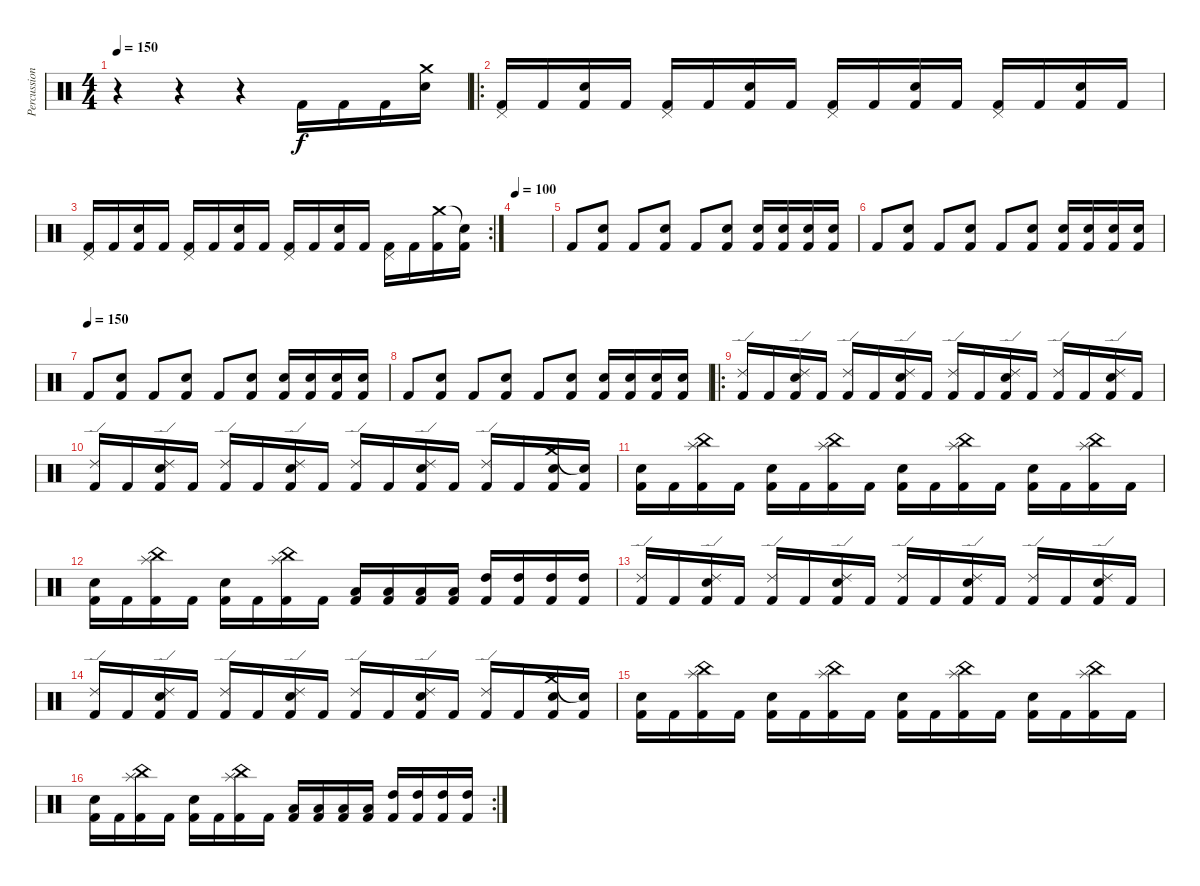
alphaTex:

\track ("Percussion" "Percussion") {instrument percussion}
\staff {score}
\articulation defaults
\ts (4 4)
\tempo 150
\clef neutral
\ks c
r.4{dy f} r.4 r.4 "Kick (hit) 2".16 "Kick (hit) 2".16 "Kick (hit) 2".16 ("Crash medium (hit)" "Electric Snare (hit)").16 |
\ro
("Pedal Hi-Hat (hit)" "Kick (hit) 2").16 "Kick (hit) 2".16 ("Electric Snare (hit)" "Kick (hit) 2").16 "Kick (hit) 2".16 ("Pedal Hi-Hat (hit)" "Kick (hit) 2").16 "Kick (hit) 2".16 ("Electric Snare (hit)" "Kick (hit) 2").16 "Kick (hit) 2".16 ("Pedal Hi-Hat (hit)" "Kick (hit) 2").16 "Kick (hit) 2".16 ("Electric Snare (hit)" "Kick (hit) 2").16 "Kick (hit) 2".16 ("Pedal Hi-Hat (hit)" "Kick (hit) 2").16 "Kick (hit) 2".16 ("Electric Snare (hit)" "Kick (hit) 2").16 "Kick (hit) 2".16 |
\rc 2
("Pedal Hi-Hat (hit)" "Kick (hit) 2").16 "Kick (hit) 2".16 ("Electric Snare (hit)" "Kick (hit) 2").16 "Kick (hit) 2".16 ("Pedal Hi-Hat (hit)" "Kick (hit) 2").16 "Kick (hit) 2".16 ("Electric Snare (hit)" "Kick (hit) 2").16 "Kick (hit) 2".16 ("Pedal Hi-Hat (hit)" "Kick (hit) 2").16 "Kick (hit) 2".16 ("Electric Snare (hit)" "Kick (hit) 2").16 "Kick (hit) 2".16 ("Pedal Hi-Hat (hit)" "Kick (hit) 2").16 "Kick (hit) 2".16 ("Crash medium (hit)" "Kick (hit) 2").16 ("Snare (hit)"{t} "Kick (hit) 2").16 |
\tempo 100
|
"Kick (hit) 2".8 ("Electric Snare (hit)" "Kick (hit) 2").8 "Kick (hit) 2".8 ("Electric Snare (hit)" "Kick (hit) 2").8 "Kick (hit) 2".8 ("Electric Snare (hit)" "Kick (hit) 2").8 ("Electric Snare (hit)" "Kick (hit) 2").16 ("Electric Snare (hit)" "Kick (hit) 2").16 ("Electric Snare (hit)" "Kick (hit) 2").16 ("Electric Snare (hit)" "Kick (hit) 2").16 |
"Kick (hit) 2".8 ("Electric Snare (hit)" "Kick (hit) 2").8 "Kick (hit) 2".8 ("Electric Snare (hit)" "Kick (hit) 2").8 "Kick (hit) 2".8 ("Electric Snare (hit)" "Kick (hit) 2").8 ("Electric Snare (hit)" "Kick (hit) 2").16 ("Electric Snare (hit)" "Kick (hit) 2").16 ("Electric Snare (hit)" "Kick (hit) 2").16 ("Electric Snare (hit)" "Kick (hit) 2").16 |
\tempo (150)
"Kick (hit) 2".8 ("Electric Snare (hit)" "Kick (hit) 2").8 "Kick (hit) 2".8 ("Electric Snare (hit)" "Kick (hit) 2").8 "Kick (hit) 2".8 ("Electric Snare (hit)" "Kick (hit) 2").8 ("Electric Snare (hit)" "Kick (hit) 2").16 ("Electric Snare (hit)" "Kick (hit) 2").16 ("Electric Snare (hit)" "Kick (hit) 2").16 ("Electric Snare (hit)" "Kick (hit) 2").16 |
"Kick (hit) 2".8 ("Electric Snare (hit)" "Kick (hit) 2").8 "Kick (hit) 2".8 ("Electric Snare (hit)" "Kick (hit) 2").8 "Kick (hit) 2".8 ("Electric Snare (hit)" "Kick (hit) 2").8 ("Electric Snare (hit)" "Kick (hit) 2").16 ("Electric Snare (hit)" "Kick (hit) 2").16 ("Electric Snare (hit)" "Kick (hit) 2").16 ("Electric Snare (hit)" "Kick (hit) 2").16 |
\ro
("Ride (edge) 2" "Kick (hit) 2").16 "Kick (hit) 2".16 ("Ride (edge) 2" "Electric Snare (hit)" "Kick (hit) 2").16 "Kick (hit) 2".16 ("Ride (edge) 2" "Kick (hit) 2").16 "Kick (hit) 2".16 ("Ride (edge) 2" "Electric Snare (hit)" "Kick (hit) 2").16 "Kick (hit) 2".16 ("Ride (edge) 2" "Kick (hit) 2").16 "Kick (hit) 2".16 ("Ride (edge) 2" "Electric Snare (hit)" "Kick (hit) 2").16 "Kick (hit) 2".16 ("Ride (edge) 2" "Kick (hit) 2").16 "Kick (hit) 2".16 ("Ride (edge) 2" "Electric Snare (hit)" "Kick (hit) 2").16 "Kick (hit) 2".16 |
("Ride (edge) 2" "Kick (hit) 2").16 "Kick (hit) 2".16 ("Ride (edge) 2" "Electric Snare (hit)" "Kick (hit) 2").16 "Kick (hit) 2".16 ("Ride (edge) 2" "Kick (hit) 2").16 "Kick (hit) 2".16 ("Ride (edge) 2" "Electric Snare (hit)" "Kick (hit) 2").16 "Kick (hit) 2".16 ("Ride (edge) 2" "Kick (hit) 2").16 "Kick (hit) 2".16 ("Ride (edge) 2" "Electric Snare (hit)" "Kick (hit) 2").16 "Kick (hit) 2".16 ("Ride (edge) 2" "Kick (hit) 2").16 "Kick (hit) 2".16 ("Crash medium (hit)" "Electric Snare (hit)" "Kick (hit) 2").16 ("Snare (hit)"{t} "Kick (hit) 2").16 |
("Electric Snare (hit)" "Kick (hit) 2").16 "Kick (hit) 2".16 ("Splash (hit)" "China (hit)" "Kick (hit) 2").16 "Kick (hit) 2".16 ("Electric Snare (hit)" "Kick (hit) 2").16 "Kick (hit) 2".16 ("Splash (hit)" "China (hit)" "Kick (hit) 2").16 "Kick (hit) 2".16 ("Electric Snare (hit)" "Kick (hit) 2").16 "Kick (hit) 2".16 ("Splash (hit)" "China (hit)" "Kick (hit) 2").16 "Kick (hit) 2".16 ("Electric Snare (hit)" "Kick (hit) 2").16 "Kick (hit) 2".16 ("Splash (hit)" "China (hit)" "Kick (hit) 2").16 "Kick (hit) 2".16 |
("Electric Snare (hit)" "Kick (hit) 2").16 "Kick (hit) 2".16 ("Splash (hit)" "China (hit)" "Kick (hit) 2").16 "Kick (hit) 2".16 ("Electric Snare (hit)" "Kick (hit) 2").16 "Kick (hit) 2".16 ("Splash (hit)" "China (hit)" "Kick (hit) 2").16 "Kick (hit) 2".16 ("Low Tom (hit)" "Kick (hit) 2").16 ("Low Tom (hit)" "Kick (hit) 2").16 ("Low Tom (hit)" "Kick (hit) 2").16 ("Low Tom (hit)" "Kick (hit) 2").16 ("High Tom (hit)" "Kick (hit) 2").16 ("High Tom (hit)" "Kick (hit) 2").16 ("High Tom (hit)" "Kick (hit) 2").16 ("High Tom (hit)" "Kick (hit) 2").16 |
("Ride (edge) 2" "Kick (hit) 2").16 "Kick (hit) 2".16 ("Ride (edge) 2" "Electric Snare (hit)" "Kick (hit) 2").16 "Kick (hit) 2".16 ("Ride (edge) 2" "Kick (hit) 2").16 "Kick (hit) 2".16 ("Ride (edge) 2" "Electric Snare (hit)" "Kick (hit) 2").16 "Kick (hit) 2".16 ("Ride (edge) 2" "Kick (hit) 2").16 "Kick (hit) 2".16 ("Ride (edge) 2" "Electric Snare (hit)" "Kick (hit) 2").16 "Kick (hit) 2".16 ("Ride (edge) 2" "Kick (hit) 2").16 "Kick (hit) 2".16 ("Ride (edge) 2" "Electric Snare (hit)" "Kick (hit) 2").16 "Kick (hit) 2".16 |
("Ride (edge) 2" "Kick (hit) 2").16 "Kick (hit) 2".16 ("Ride (edge) 2" "Electric Snare (hit)" "Kick (hit) 2").16 "Kick (hit) 2".16 ("Ride (edge) 2" "Kick (hit) 2").16 "Kick (hit) 2".16 ("Ride (edge) 2" "Electric Snare (hit)" "Kick (hit) 2").16 "Kick (hit) 2".16 ("Ride (edge) 2" "Kick (hit) 2").16 "Kick (hit) 2".16 ("Ride (edge) 2" "Electric Snare (hit)" "Kick (hit) 2").16 "Kick (hit) 2".16 ("Ride (edge) 2" "Kick (hit) 2").16 "Kick (hit) 2".16 ("Crash medium (hit)" "Electric Snare (hit)" "Kick (hit) 2").16 ("Snare (hit)"{t} "Kick (hit) 2").16 |
("Electric Snare (hit)" "Kick (hit) 2").16 "Kick (hit) 2".16 ("Splash (hit)" "China (hit)" "Kick (hit) 2").16 "Kick (hit) 2".16 ("Electric Snare (hit)" "Kick (hit) 2").16 "Kick (hit) 2".16 ("Splash (hit)" "China (hit)" "Kick (hit) 2").16 "Kick (hit) 2".16 ("Electric Snare (hit)" "Kick (hit) 2").16 "Kick (hit) 2".16 ("Splash (hit)" "China (hit)" "Kick (hit) 2").16 "Kick (hit) 2".16 ("Electric Snare (hit)" "Kick (hit) 2").16 "Kick (hit) 2".16 ("Splash (hit)" "China (hit)" "Kick (hit) 2").16 "Kick (hit) 2".16 |
\rc 2
("Electric Snare (hit)" "Kick (hit) 2").16 "Kick (hit) 2".16 ("Splash (hit)" "China (hit)" "Kick (hit) 2").16 "Kick (hit) 2".16 ("Electric Snare (hit)" "Kick (hit) 2").16 "Kick (hit) 2".16 ("Splash (hit)" "China (hit)" "Kick (hit) 2").16 "Kick (hit) 2".16 ("Low Tom (hit)" "Kick (hit) 2").16 ("Low Tom (hit)" "Kick (hit) 2").16 ("Low Tom (hit)" "Kick (hit) 2").16 ("Low Tom (hit)" "Kick (hit) 2").16 ("High Tom (hit)" "Kick (hit) 2").16 ("High Tom (hit)" "Kick (hit) 2").16 ("High Tom (hit)" "Kick (hit) 2").16 ("High Tom (hit)" "Kick (hit) 2").16
